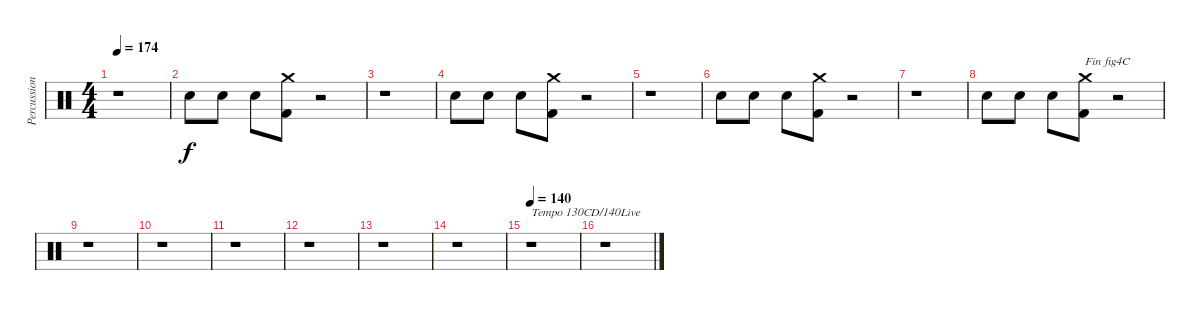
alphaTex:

\track ("Percussions" "Percussion") {instrument percussion}
\staff {score}
\articulation defaults
\ts (4 4)
\tempo 174
\clef neutral
\ks c
r.1{dy f} |
"Electric Snare (hit)".8 "Electric Snare (hit)".8 "Electric Snare (hit)".8 ("Kick (hit) 2" "Crash medium (hit)").8 r.2 |
r.1 |
"Electric Snare (hit)".8 "Electric Snare (hit)".8 "Electric Snare (hit)".8 ("Kick (hit) 2" "Crash medium (hit)").8 r.2 |
r.1 |
"Electric Snare (hit)".8 "Electric Snare (hit)".8 "Electric Snare (hit)".8 ("Kick (hit) 2" "Crash medium (hit)").8 r.2 |
r.1 |
"Electric Snare (hit)".8 "Electric Snare (hit)".8 "Electric Snare (hit)".8 ("Kick (hit) 2" "Crash medium (hit)").8{txt "Fin fig4C"} r.2 |
r.1 |
r.1 |
r.1 |
r.1 |
r.1 |
r.1 |
\tempo 140
r.1{txt "Tempo 130CD/140Live"} |
r.1
